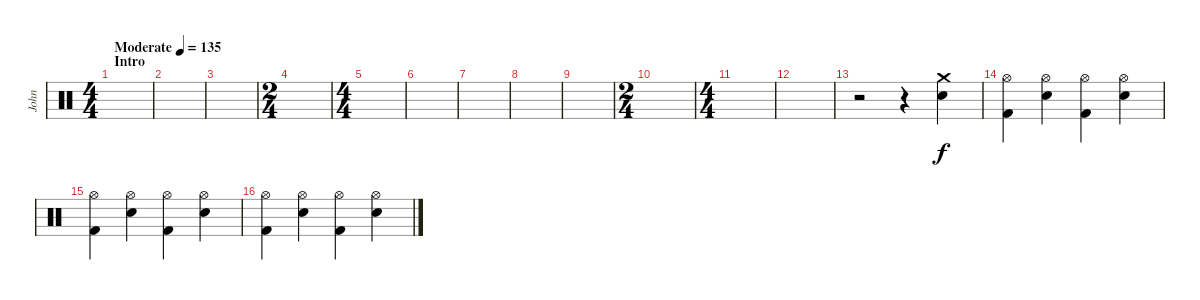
\track ("John" "John") {instrument percussion}
\staff {score}
\articulation defaults
\ts (4 4)
\section ("" "Intro")
\tempo (135 "Moderate")
\tempo 145
\tempo (135 "Moderate")
\clef neutral
\ks c
|
|
|
\ts (2 4)
|
\ts (4 4)
|
|
|
|
|
\ts (2 4)
|
\ts (4 4)
|
|
r.2 r.4 ("Crash medium (hit)" "Electric Snare (hit)").4 |
("Hi-Hat (open)" "Kick (hit) 2").4 ("Hi-Hat (open)" "Electric Snare (hit)").4 ("Hi-Hat (open)" "Kick (hit) 2").4 ("Hi-Hat (open)" "Electric Snare (hit)").4 |
("Hi-Hat (open)" "Kick (hit) 2").4 ("Hi-Hat (open)" "Electric Snare (hit)").4 ("Hi-Hat (open)" "Kick (hit) 2").4 ("Hi-Hat (open)" "Electric Snare (hit)").4 |
("Hi-Hat (open)" "Kick (hit) 2").4 ("Hi-Hat (open)" "Electric Snare (hit)").4 ("Hi-Hat (open)" "Kick (hit) 2").4 ("Hi-Hat (open)" "Electric Snare (hit)").4
